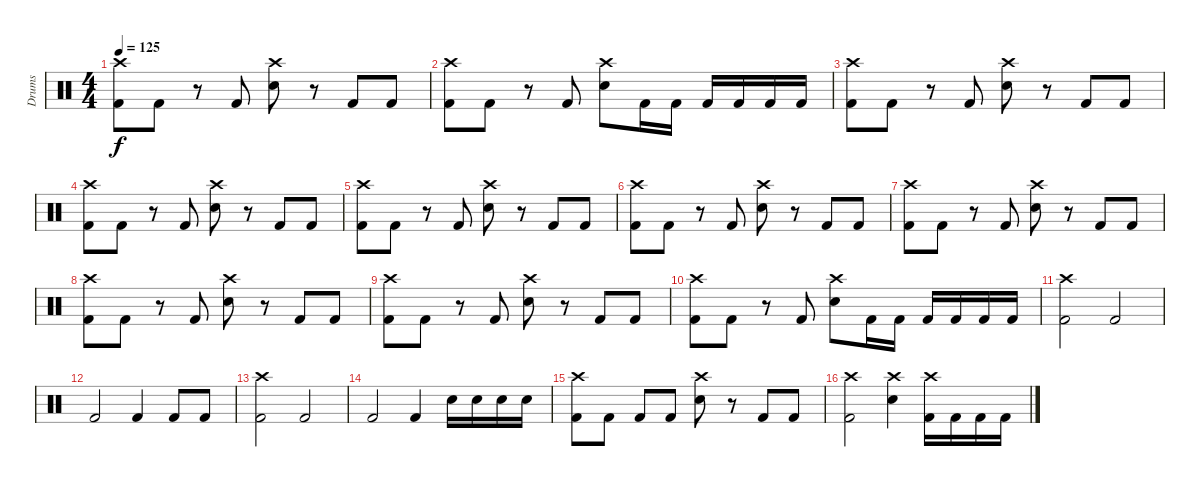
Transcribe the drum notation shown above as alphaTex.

\track ("Drums" "Drums") {instrument percussion}
\staff {score}
\articulation defaults
\ts (4 4)
\tempo 125
\clef neutral
\ks c
("Crash high (hit)" "Kick (hit) 2").8{dy f} "Kick (hit) 2".8 r.8 "Kick (hit) 2".8 ("Crash high (hit)" "Snare (hit) 2").8 r.8 "Kick (hit) 2".8 "Kick (hit) 2".8 |
("Crash high (hit)" "Kick (hit) 2").8 "Kick (hit) 2".8 r.8 "Kick (hit) 2".8 ("Crash high (hit)" "Snare (hit) 2").8 "Kick (hit) 2".16 "Kick (hit) 2".16 "Kick (hit) 2".16 "Kick (hit) 2".16 "Kick (hit) 2".16 "Kick (hit) 2".16 |
("Crash high (hit)" "Kick (hit) 2").8 "Kick (hit) 2".8 r.8 "Kick (hit) 2".8 ("Crash high (hit)" "Snare (hit) 2").8 r.8 "Kick (hit) 2".8 "Kick (hit) 2".8 |
("Crash high (hit)" "Kick (hit) 2").8 "Kick (hit) 2".8 r.8 "Kick (hit) 2".8 ("Crash high (hit)" "Snare (hit) 2").8 r.8 "Kick (hit) 2".8 "Kick (hit) 2".8 |
("Crash high (hit)" "Kick (hit) 2").8 "Kick (hit) 2".8 r.8 "Kick (hit) 2".8 ("Crash high (hit)" "Snare (hit) 2").8 r.8 "Kick (hit) 2".8 "Kick (hit) 2".8 |
("Crash high (hit)" "Kick (hit) 2").8 "Kick (hit) 2".8 r.8 "Kick (hit) 2".8 ("Crash high (hit)" "Snare (hit) 2").8 r.8 "Kick (hit) 2".8 "Kick (hit) 2".8 |
("Crash high (hit)" "Kick (hit) 2").8 "Kick (hit) 2".8 r.8 "Kick (hit) 2".8 ("Crash high (hit)" "Snare (hit) 2").8 r.8 "Kick (hit) 2".8 "Kick (hit) 2".8 |
("Crash high (hit)" "Kick (hit) 2").8 "Kick (hit) 2".8 r.8 "Kick (hit) 2".8 ("Crash high (hit)" "Snare (hit) 2").8 r.8 "Kick (hit) 2".8 "Kick (hit) 2".8 |
("Crash high (hit)" "Kick (hit) 2").8 "Kick (hit) 2".8 r.8 "Kick (hit) 2".8 ("Crash high (hit)" "Snare (hit) 2").8 r.8 "Kick (hit) 2".8 "Kick (hit) 2".8 |
("Crash high (hit)" "Kick (hit) 2").8 "Kick (hit) 2".8 r.8 "Kick (hit) 2".8 ("Crash high (hit)" "Snare (hit) 2").8 "Kick (hit) 2".16 "Kick (hit) 2".16 "Kick (hit) 2".16 "Kick (hit) 2".16 "Kick (hit) 2".16 "Kick (hit) 2".16 |
("Crash high (hit)" "Kick (hit) 2").2 "Kick (hit) 2".2 |
"Kick (hit) 2".2 "Kick (hit) 2".4 "Kick (hit) 2".8 "Kick (hit) 2".8 |
("Crash high (hit)" "Kick (hit) 2").2 "Kick (hit) 2".2 |
"Kick (hit) 2".2 "Kick (hit) 2".4 "Snare (hit) 2".16 "Snare (hit) 2".16 "Snare (hit) 2".16 "Snare (hit) 2".16 |
("Kick (hit) 2" "Crash high (hit)").8 "Kick (hit) 2".8 "Kick (hit) 2".8 "Kick (hit) 2".8 ("Snare (hit) 2" "Crash high (hit)").8 r.8 "Kick (hit) 2".8 "Kick (hit) 2".8 |
("Crash high (hit)" "Kick (hit) 2").2 ("Crash high (hit)" "Snare (hit) 2").4 ("Crash high (hit)" "Kick (hit) 2").16 "Kick (hit) 2".16 "Kick (hit) 2".16 "Kick (hit) 2".16
